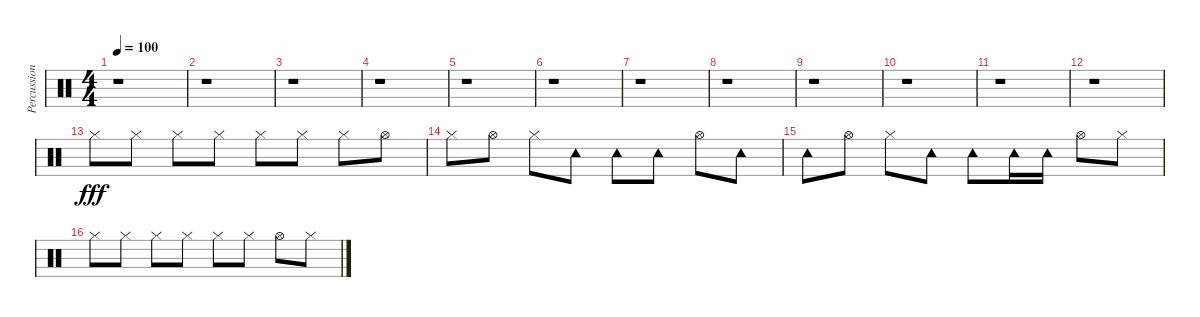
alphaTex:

\track ("Percussion" "Percussion") {instrument percussion}
\staff {score}
\articulation defaults
\ts (4 4)
\tempo 100
\clef neutral
\ks c
r.1{dy fff} |
r.1 |
r.1 |
r.1 |
r.1 |
r.1 |
r.1 |
r.1 |
r.1 |
r.1 |
r.1 |
r.1 |
"Hi-Hat (closed)".8 "Hi-Hat (closed)".8 "Hi-Hat (closed)".8 "Hi-Hat (closed)".8 "Hi-Hat (closed)".8 "Hi-Hat (closed)".8 "Hi-Hat (closed)".8 "Hi-Hat (open)".8 |
"Hi-Hat (closed)".8 "Hi-Hat (open)".8 "Hi-Hat (closed)".8 "Tambourine (hit)".8 "Tambourine (hit)".8 "Tambourine (hit)".8 "Hi-Hat (open)".8 "Tambourine (hit)".8 |
"Tambourine (hit)".8 "Hi-Hat (open)".8 "Hi-Hat (closed)".8 "Tambourine (hit)".8 "Tambourine (hit)".8 "Tambourine (hit)".16 "Tambourine (hit)".16 "Hi-Hat (open)".8 "Hi-Hat (closed)".8 |
"Hi-Hat (closed)".8 "Hi-Hat (closed)".8 "Hi-Hat (closed)".8 "Hi-Hat (closed)".8 "Hi-Hat (closed)".8 "Hi-Hat (closed)".8 "Hi-Hat (open)".8 "Hi-Hat (closed)".8
